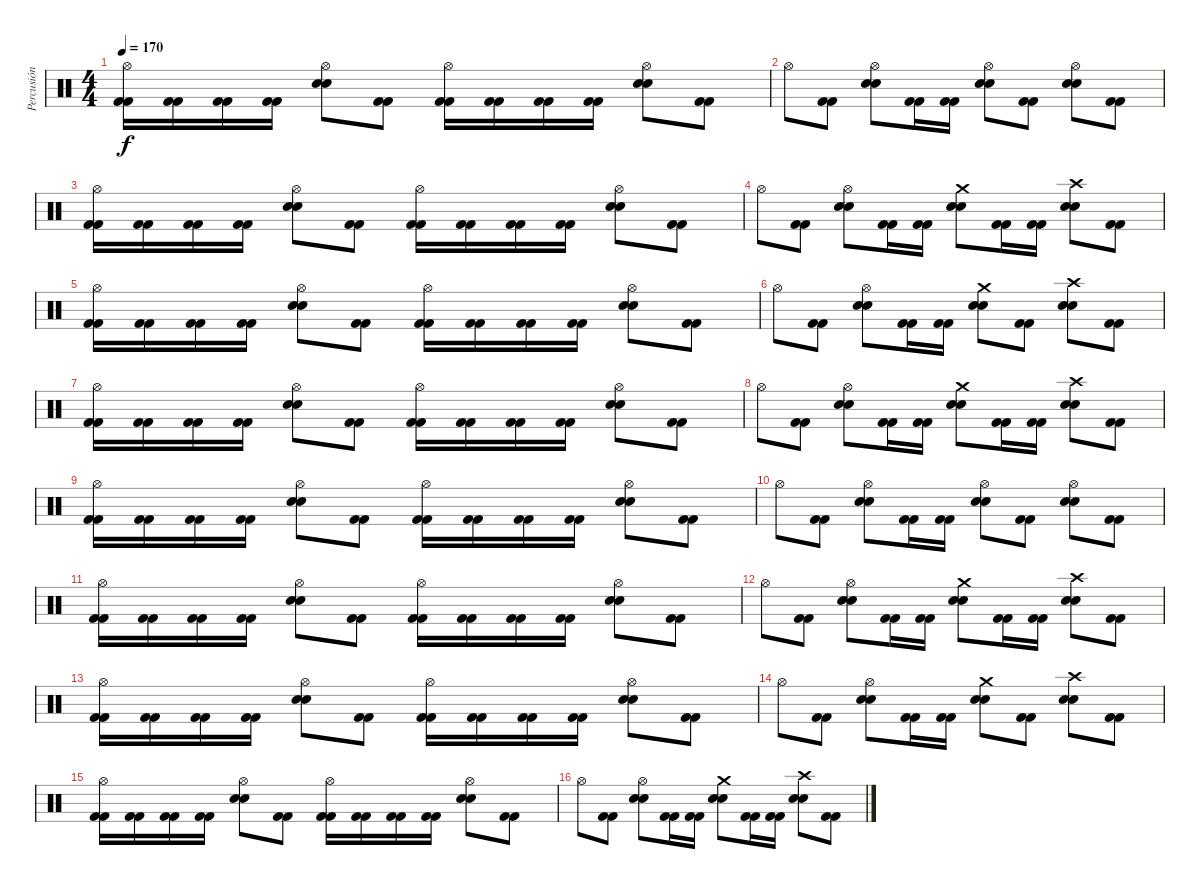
\track ("Percusión" "Percusión") {instrument percussion}
\staff {score}
\articulation defaults
\ts (4 4)
\tempo 170
\clef neutral
\ks c
("Hi-Hat (open)" "Kick (hit) 2" "Kick (hit) 2").16{dy f} ("Kick (hit) 2" "Kick (hit) 2").16 ("Kick (hit) 2" "Kick (hit) 2").16 ("Kick (hit) 2" "Kick (hit) 2").16 ("Hi-Hat (open)" "Electric Snare (hit)" "Electric Snare (hit)").8 ("Kick (hit) 2" "Kick (hit) 2").8 ("Hi-Hat (open)" "Kick (hit) 2" "Kick (hit) 2").16 ("Kick (hit) 2" "Kick (hit) 2").16 ("Kick (hit) 2" "Kick (hit) 2").16 ("Kick (hit) 2" "Kick (hit) 2").16 ("Hi-Hat (open)" "Electric Snare (hit)" "Electric Snare (hit)").8 ("Kick (hit) 2" "Kick (hit) 2").8 |
"Hi-Hat (open)".8 ("Kick (hit) 2" "Kick (hit) 2").8 ("Hi-Hat (open)" "Electric Snare (hit)" "Electric Snare (hit)").8 ("Kick (hit) 2" "Kick (hit) 2").16 ("Kick (hit) 2" "Kick (hit) 2").16 ("Hi-Hat (open)" "Electric Snare (hit)" "Electric Snare (hit)").8 ("Kick (hit) 2" "Kick (hit) 2").8 ("Hi-Hat (open)" "Electric Snare (hit)" "Electric Snare (hit)").8 ("Kick (hit) 2" "Kick (hit) 2").8 |
("Hi-Hat (open)" "Kick (hit) 2" "Kick (hit) 2").16 ("Kick (hit) 2" "Kick (hit) 2").16 ("Kick (hit) 2" "Kick (hit) 2").16 ("Kick (hit) 2" "Kick (hit) 2").16 ("Hi-Hat (open)" "Electric Snare (hit)" "Electric Snare (hit)").8 ("Kick (hit) 2" "Kick (hit) 2").8 ("Hi-Hat (open)" "Kick (hit) 2" "Kick (hit) 2").16 ("Kick (hit) 2" "Kick (hit) 2").16 ("Kick (hit) 2" "Kick (hit) 2").16 ("Kick (hit) 2" "Kick (hit) 2").16 ("Hi-Hat (open)" "Electric Snare (hit)" "Electric Snare (hit)").8 ("Kick (hit) 2" "Kick (hit) 2").8 |
"Hi-Hat (open)".8 ("Kick (hit) 2" "Kick (hit) 2").8 ("Hi-Hat (open)" "Electric Snare (hit)" "Electric Snare (hit)").8 ("Kick (hit) 2" "Kick (hit) 2").16 ("Kick (hit) 2" "Kick (hit) 2").16 ("Crash medium (hit)" "Electric Snare (hit)" "Electric Snare (hit)").8 ("Kick (hit) 2" "Kick (hit) 2").16 ("Kick (hit) 2" "Kick (hit) 2").16 ("Crash high (hit)" "Electric Snare (hit)" "Electric Snare (hit)").8 ("Kick (hit) 2" "Kick (hit) 2").8 |
("Hi-Hat (open)" "Kick (hit) 2" "Kick (hit) 2").16 ("Kick (hit) 2" "Kick (hit) 2").16 ("Kick (hit) 2" "Kick (hit) 2").16 ("Kick (hit) 2" "Kick (hit) 2").16 ("Hi-Hat (open)" "Electric Snare (hit)" "Electric Snare (hit)").8 ("Kick (hit) 2" "Kick (hit) 2").8 ("Hi-Hat (open)" "Kick (hit) 2" "Kick (hit) 2").16 ("Kick (hit) 2" "Kick (hit) 2").16 ("Kick (hit) 2" "Kick (hit) 2").16 ("Kick (hit) 2" "Kick (hit) 2").16 ("Hi-Hat (open)" "Electric Snare (hit)" "Electric Snare (hit)").8 ("Kick (hit) 2" "Kick (hit) 2").8 |
"Hi-Hat (open)".8 ("Kick (hit) 2" "Kick (hit) 2").8 ("Hi-Hat (open)" "Electric Snare (hit)" "Electric Snare (hit)").8 ("Kick (hit) 2" "Kick (hit) 2").16 ("Kick (hit) 2" "Kick (hit) 2").16 ("Crash medium (hit)" "Electric Snare (hit)" "Electric Snare (hit)").8 ("Kick (hit) 2" "Kick (hit) 2").8 ("Crash high (hit)" "Electric Snare (hit)" "Electric Snare (hit)").8 ("Kick (hit) 2" "Kick (hit) 2").8 |
("Hi-Hat (open)" "Kick (hit) 2" "Kick (hit) 2").16 ("Kick (hit) 2" "Kick (hit) 2").16 ("Kick (hit) 2" "Kick (hit) 2").16 ("Kick (hit) 2" "Kick (hit) 2").16 ("Hi-Hat (open)" "Electric Snare (hit)" "Electric Snare (hit)").8 ("Kick (hit) 2" "Kick (hit) 2").8 ("Hi-Hat (open)" "Kick (hit) 2" "Kick (hit) 2").16 ("Kick (hit) 2" "Kick (hit) 2").16 ("Kick (hit) 2" "Kick (hit) 2").16 ("Kick (hit) 2" "Kick (hit) 2").16 ("Hi-Hat (open)" "Electric Snare (hit)" "Electric Snare (hit)").8 ("Kick (hit) 2" "Kick (hit) 2").8 |
"Hi-Hat (open)".8 ("Kick (hit) 2" "Kick (hit) 2").8 ("Hi-Hat (open)" "Electric Snare (hit)" "Electric Snare (hit)").8 ("Kick (hit) 2" "Kick (hit) 2").16 ("Kick (hit) 2" "Kick (hit) 2").16 ("Crash medium (hit)" "Electric Snare (hit)" "Electric Snare (hit)").8 ("Kick (hit) 2" "Kick (hit) 2").16 ("Kick (hit) 2" "Kick (hit) 2").16 ("Crash high (hit)" "Electric Snare (hit)" "Electric Snare (hit)").8 ("Kick (hit) 2" "Kick (hit) 2").8 |
("Hi-Hat (open)" "Kick (hit) 2" "Kick (hit) 2").16 ("Kick (hit) 2" "Kick (hit) 2").16 ("Kick (hit) 2" "Kick (hit) 2").16 ("Kick (hit) 2" "Kick (hit) 2").16 ("Hi-Hat (open)" "Electric Snare (hit)" "Electric Snare (hit)").8 ("Kick (hit) 2" "Kick (hit) 2").8 ("Hi-Hat (open)" "Kick (hit) 2" "Kick (hit) 2").16 ("Kick (hit) 2" "Kick (hit) 2").16 ("Kick (hit) 2" "Kick (hit) 2").16 ("Kick (hit) 2" "Kick (hit) 2").16 ("Hi-Hat (open)" "Electric Snare (hit)" "Electric Snare (hit)").8 ("Kick (hit) 2" "Kick (hit) 2").8 |
"Hi-Hat (open)".8 ("Kick (hit) 2" "Kick (hit) 2").8 ("Hi-Hat (open)" "Electric Snare (hit)" "Electric Snare (hit)").8 ("Kick (hit) 2" "Kick (hit) 2").16 ("Kick (hit) 2" "Kick (hit) 2").16 ("Hi-Hat (open)" "Electric Snare (hit)" "Electric Snare (hit)").8 ("Kick (hit) 2" "Kick (hit) 2").8 ("Hi-Hat (open)" "Electric Snare (hit)" "Electric Snare (hit)").8 ("Kick (hit) 2" "Kick (hit) 2").8 |
("Hi-Hat (open)" "Kick (hit) 2" "Kick (hit) 2").16 ("Kick (hit) 2" "Kick (hit) 2").16 ("Kick (hit) 2" "Kick (hit) 2").16 ("Kick (hit) 2" "Kick (hit) 2").16 ("Hi-Hat (open)" "Electric Snare (hit)" "Electric Snare (hit)").8 ("Kick (hit) 2" "Kick (hit) 2").8 ("Hi-Hat (open)" "Kick (hit) 2" "Kick (hit) 2").16 ("Kick (hit) 2" "Kick (hit) 2").16 ("Kick (hit) 2" "Kick (hit) 2").16 ("Kick (hit) 2" "Kick (hit) 2").16 ("Hi-Hat (open)" "Electric Snare (hit)" "Electric Snare (hit)").8 ("Kick (hit) 2" "Kick (hit) 2").8 |
"Hi-Hat (open)".8 ("Kick (hit) 2" "Kick (hit) 2").8 ("Hi-Hat (open)" "Electric Snare (hit)" "Electric Snare (hit)").8 ("Kick (hit) 2" "Kick (hit) 2").16 ("Kick (hit) 2" "Kick (hit) 2").16 ("Crash medium (hit)" "Electric Snare (hit)" "Electric Snare (hit)").8 ("Kick (hit) 2" "Kick (hit) 2").16 ("Kick (hit) 2" "Kick (hit) 2").16 ("Crash high (hit)" "Electric Snare (hit)" "Electric Snare (hit)").8 ("Kick (hit) 2" "Kick (hit) 2").8 |
("Hi-Hat (open)" "Kick (hit) 2" "Kick (hit) 2").16 ("Kick (hit) 2" "Kick (hit) 2").16 ("Kick (hit) 2" "Kick (hit) 2").16 ("Kick (hit) 2" "Kick (hit) 2").16 ("Hi-Hat (open)" "Electric Snare (hit)" "Electric Snare (hit)").8 ("Kick (hit) 2" "Kick (hit) 2").8 ("Hi-Hat (open)" "Kick (hit) 2" "Kick (hit) 2").16 ("Kick (hit) 2" "Kick (hit) 2").16 ("Kick (hit) 2" "Kick (hit) 2").16 ("Kick (hit) 2" "Kick (hit) 2").16 ("Hi-Hat (open)" "Electric Snare (hit)" "Electric Snare (hit)").8 ("Kick (hit) 2" "Kick (hit) 2").8 |
"Hi-Hat (open)".8 ("Kick (hit) 2" "Kick (hit) 2").8 ("Hi-Hat (open)" "Electric Snare (hit)" "Electric Snare (hit)").8 ("Kick (hit) 2" "Kick (hit) 2").16 ("Kick (hit) 2" "Kick (hit) 2").16 ("Crash medium (hit)" "Electric Snare (hit)" "Electric Snare (hit)").8 ("Kick (hit) 2" "Kick (hit) 2").8 ("Crash high (hit)" "Electric Snare (hit)" "Electric Snare (hit)").8 ("Kick (hit) 2" "Kick (hit) 2").8 |
("Hi-Hat (open)" "Kick (hit) 2" "Kick (hit) 2").16 ("Kick (hit) 2" "Kick (hit) 2").16 ("Kick (hit) 2" "Kick (hit) 2").16 ("Kick (hit) 2" "Kick (hit) 2").16 ("Hi-Hat (open)" "Electric Snare (hit)" "Electric Snare (hit)").8 ("Kick (hit) 2" "Kick (hit) 2").8 ("Hi-Hat (open)" "Kick (hit) 2" "Kick (hit) 2").16 ("Kick (hit) 2" "Kick (hit) 2").16 ("Kick (hit) 2" "Kick (hit) 2").16 ("Kick (hit) 2" "Kick (hit) 2").16 ("Hi-Hat (open)" "Electric Snare (hit)" "Electric Snare (hit)").8 ("Kick (hit) 2" "Kick (hit) 2").8 |
"Hi-Hat (open)".8 ("Kick (hit) 2" "Kick (hit) 2").8 ("Hi-Hat (open)" "Electric Snare (hit)" "Electric Snare (hit)").8 ("Kick (hit) 2" "Kick (hit) 2").16 ("Kick (hit) 2" "Kick (hit) 2").16 ("Crash medium (hit)" "Electric Snare (hit)" "Electric Snare (hit)").8 ("Kick (hit) 2" "Kick (hit) 2").16 ("Kick (hit) 2" "Kick (hit) 2").16 ("Crash high (hit)" "Electric Snare (hit)" "Electric Snare (hit)").8 ("Kick (hit) 2" "Kick (hit) 2").8
